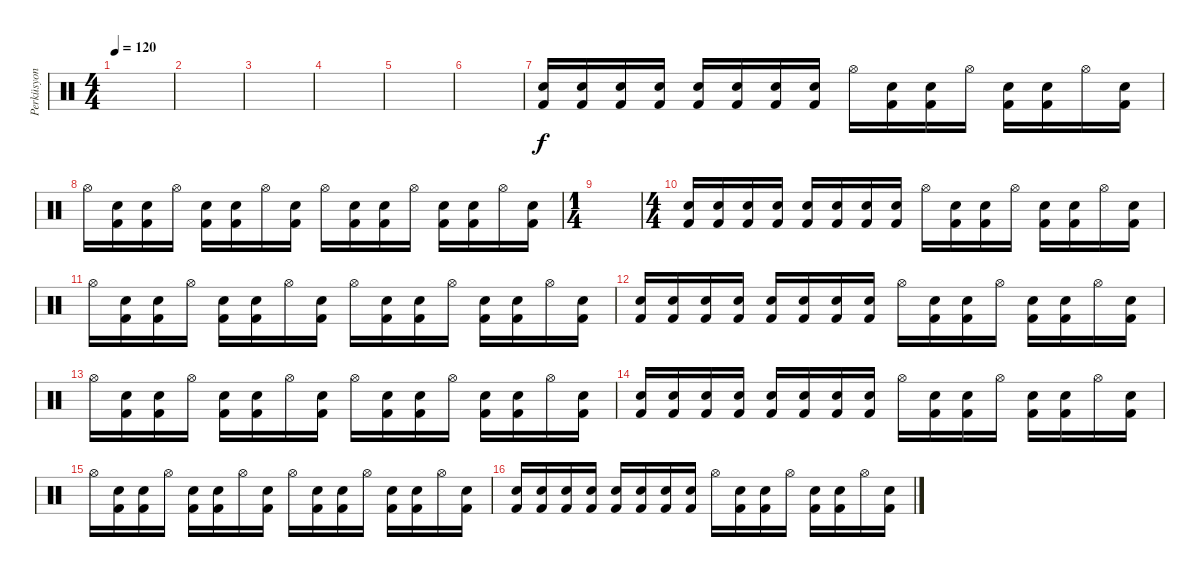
\track ("Perküsyon" "Perküsyon") {instrument percussion}
\staff {score}
\articulation defaults
\ts (4 4)
\tempo 120
\clef neutral
\ks c
|
|
|
|
|
|
("Snare (hit) 2" "Kick (hit) 2").16 ("Snare (hit) 2" "Kick (hit) 2").16 ("Snare (hit) 2" "Kick (hit) 2").16 ("Snare (hit) 2" "Kick (hit) 2").16 ("Snare (hit) 2" "Kick (hit) 2").16 ("Snare (hit) 2" "Kick (hit) 2").16 ("Snare (hit) 2" "Kick (hit) 2").16 ("Snare (hit) 2" "Kick (hit) 2").16 "Hi-Hat (open)".16 ("Snare (hit) 2" "Kick (hit) 2").16 ("Snare (hit) 2" "Kick (hit) 2").16 "Hi-Hat (open)".16 ("Snare (hit) 2" "Kick (hit) 2").16 ("Snare (hit) 2" "Kick (hit) 2").16 "Hi-Hat (open)".16 ("Snare (hit) 2" "Kick (hit) 2").16 |
"Hi-Hat (open)".16 ("Snare (hit) 2" "Kick (hit) 2").16 ("Snare (hit) 2" "Kick (hit) 2").16 "Hi-Hat (open)".16 ("Snare (hit) 2" "Kick (hit) 2").16 ("Snare (hit) 2" "Kick (hit) 2").16 "Hi-Hat (open)".16 ("Snare (hit) 2" "Kick (hit) 2").16 "Hi-Hat (open)".16 ("Snare (hit) 2" "Kick (hit) 2").16 ("Snare (hit) 2" "Kick (hit) 2").16 "Hi-Hat (open)".16 ("Snare (hit) 2" "Kick (hit) 2").16 ("Snare (hit) 2" "Kick (hit) 2").16 "Hi-Hat (open)".16 ("Snare (hit) 2" "Kick (hit) 2").16 |
\ts (1 4)
|
\ts (4 4)
("Snare (hit) 2" "Kick (hit) 2").16 ("Snare (hit) 2" "Kick (hit) 2").16 ("Snare (hit) 2" "Kick (hit) 2").16 ("Snare (hit) 2" "Kick (hit) 2").16 ("Snare (hit) 2" "Kick (hit) 2").16 ("Snare (hit) 2" "Kick (hit) 2").16 ("Snare (hit) 2" "Kick (hit) 2").16 ("Snare (hit) 2" "Kick (hit) 2").16 "Hi-Hat (open)".16 ("Snare (hit) 2" "Kick (hit) 2").16 ("Snare (hit) 2" "Kick (hit) 2").16 "Hi-Hat (open)".16 ("Snare (hit) 2" "Kick (hit) 2").16 ("Snare (hit) 2" "Kick (hit) 2").16 "Hi-Hat (open)".16 ("Snare (hit) 2" "Kick (hit) 2").16 |
"Hi-Hat (open)".16 ("Snare (hit) 2" "Kick (hit) 2").16 ("Snare (hit) 2" "Kick (hit) 2").16 "Hi-Hat (open)".16 ("Snare (hit) 2" "Kick (hit) 2").16 ("Snare (hit) 2" "Kick (hit) 2").16 "Hi-Hat (open)".16 ("Snare (hit) 2" "Kick (hit) 2").16 "Hi-Hat (open)".16 ("Snare (hit) 2" "Kick (hit) 2").16 ("Snare (hit) 2" "Kick (hit) 2").16 "Hi-Hat (open)".16 ("Snare (hit) 2" "Kick (hit) 2").16 ("Snare (hit) 2" "Kick (hit) 2").16 "Hi-Hat (open)".16 ("Snare (hit) 2" "Kick (hit) 2").16 |
("Snare (hit) 2" "Kick (hit) 2").16 ("Snare (hit) 2" "Kick (hit) 2").16 ("Snare (hit) 2" "Kick (hit) 2").16 ("Snare (hit) 2" "Kick (hit) 2").16 ("Snare (hit) 2" "Kick (hit) 2").16 ("Snare (hit) 2" "Kick (hit) 2").16 ("Snare (hit) 2" "Kick (hit) 2").16 ("Snare (hit) 2" "Kick (hit) 2").16 "Hi-Hat (open)".16 ("Snare (hit) 2" "Kick (hit) 2").16 ("Snare (hit) 2" "Kick (hit) 2").16 "Hi-Hat (open)".16 ("Snare (hit) 2" "Kick (hit) 2").16 ("Snare (hit) 2" "Kick (hit) 2").16 "Hi-Hat (open)".16 ("Snare (hit) 2" "Kick (hit) 2").16 |
"Hi-Hat (open)".16 ("Snare (hit) 2" "Kick (hit) 2").16 ("Snare (hit) 2" "Kick (hit) 2").16 "Hi-Hat (open)".16 ("Snare (hit) 2" "Kick (hit) 2").16 ("Snare (hit) 2" "Kick (hit) 2").16 "Hi-Hat (open)".16 ("Snare (hit) 2" "Kick (hit) 2").16 "Hi-Hat (open)".16 ("Snare (hit) 2" "Kick (hit) 2").16 ("Snare (hit) 2" "Kick (hit) 2").16 "Hi-Hat (open)".16 ("Snare (hit) 2" "Kick (hit) 2").16 ("Snare (hit) 2" "Kick (hit) 2").16 "Hi-Hat (open)".16 ("Snare (hit) 2" "Kick (hit) 2").16 |
("Snare (hit) 2" "Kick (hit) 2").16 ("Snare (hit) 2" "Kick (hit) 2").16 ("Snare (hit) 2" "Kick (hit) 2").16 ("Snare (hit) 2" "Kick (hit) 2").16 ("Snare (hit) 2" "Kick (hit) 2").16 ("Snare (hit) 2" "Kick (hit) 2").16 ("Snare (hit) 2" "Kick (hit) 2").16 ("Snare (hit) 2" "Kick (hit) 2").16 "Hi-Hat (open)".16 ("Snare (hit) 2" "Kick (hit) 2").16 ("Snare (hit) 2" "Kick (hit) 2").16 "Hi-Hat (open)".16 ("Snare (hit) 2" "Kick (hit) 2").16 ("Snare (hit) 2" "Kick (hit) 2").16 "Hi-Hat (open)".16 ("Snare (hit) 2" "Kick (hit) 2").16 |
"Hi-Hat (open)".16 ("Snare (hit) 2" "Kick (hit) 2").16 ("Snare (hit) 2" "Kick (hit) 2").16 "Hi-Hat (open)".16 ("Snare (hit) 2" "Kick (hit) 2").16 ("Snare (hit) 2" "Kick (hit) 2").16 "Hi-Hat (open)".16 ("Snare (hit) 2" "Kick (hit) 2").16 "Hi-Hat (open)".16 ("Snare (hit) 2" "Kick (hit) 2").16 ("Snare (hit) 2" "Kick (hit) 2").16 "Hi-Hat (open)".16 ("Snare (hit) 2" "Kick (hit) 2").16 ("Snare (hit) 2" "Kick (hit) 2").16 "Hi-Hat (open)".16 ("Snare (hit) 2" "Kick (hit) 2").16 |
("Snare (hit) 2" "Kick (hit) 2").16 ("Snare (hit) 2" "Kick (hit) 2").16 ("Snare (hit) 2" "Kick (hit) 2").16 ("Snare (hit) 2" "Kick (hit) 2").16 ("Snare (hit) 2" "Kick (hit) 2").16 ("Snare (hit) 2" "Kick (hit) 2").16 ("Snare (hit) 2" "Kick (hit) 2").16 ("Snare (hit) 2" "Kick (hit) 2").16 "Hi-Hat (open)".16 ("Snare (hit) 2" "Kick (hit) 2").16 ("Snare (hit) 2" "Kick (hit) 2").16 "Hi-Hat (open)".16 ("Snare (hit) 2" "Kick (hit) 2").16 ("Snare (hit) 2" "Kick (hit) 2").16 "Hi-Hat (open)".16 ("Snare (hit) 2" "Kick (hit) 2").16
